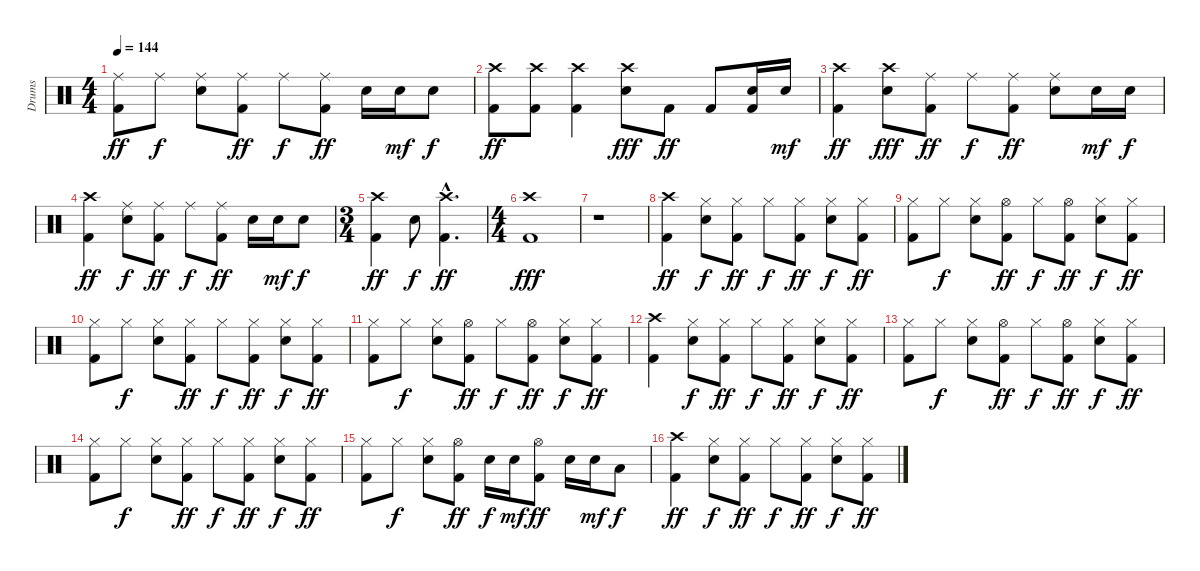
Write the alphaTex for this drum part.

\track ("Drums" "Drums") {instrument percussion}
\staff {score}
\articulation defaults
\ts (4 4)
\tempo 144
\clef neutral
\ks c
("Ride (middle)" "Kick (hit) 2").8{dy ff} "Ride (middle)".8{dy f} ("Ride (middle)" "Snare (hit) 2").8 ("Ride (middle)" "Kick (hit) 2").8{dy ff} "Ride (middle)".8{dy f} ("Ride (middle)" "Kick (hit) 2").8{dy ff} "Snare (hit) 2".16 "Snare (hit) 2".16{dy mf} "Snare (hit) 2".8{dy f} |
("Crash high (hit)" "Kick (hit) 2").8{dy ff} ("Crash high (hit)" "Kick (hit) 2").8 ("Crash high (hit)" "Kick (hit) 2").4 ("Crash high (hit)" "Snare (hit) 2").8{dy fff} "Kick (hit) 2".8{dy ff} "Kick (hit) 2".8 ("Snare (hit) 2" "Kick (hit) 2").16 "Snare (hit) 2".16{dy mf} |
("Crash high (hit)" "Kick (hit) 2").4{dy ff} ("Crash high (hit)" "Snare (hit) 2").8{dy fff} ("Ride (middle)" "Kick (hit) 2").8{dy ff} "Ride (middle)".8{dy f} ("Ride (middle)" "Kick (hit) 2").8{dy ff} ("Ride (middle)" "Snare (hit) 2").8 "Snare (hit) 2".16{dy mf} "Snare (hit) 2".16{dy f} |
("Crash high (hit)" "Kick (hit) 2").4{dy ff} ("Ride (middle)" "Snare (hit) 2").8{dy f} ("Ride (middle)" "Kick (hit) 2").8{dy ff} "Ride (middle)".8{dy f} ("Ride (middle)" "Kick (hit) 2").8{dy ff} "Snare (hit) 2".16 "Snare (hit) 2".16{dy mf} "Snare (hit) 2".8{dy f} |
\ts (3 4)
("Crash high (hit)" "Kick (hit) 2").4{dy ff} "Snare (hit) 2".8{dy f} ("Crash high (hit)"{hac} "Kick (hit) 2"{hac}).4{d dy ff} |
\ts (4 4)
("Crash high (hit)" "Kick (hit) 2").1{dy fff} |
r.1 |
("Crash high (hit)" "Kick (hit) 2").4{dy ff} ("Hi-Hat (closed)" "Snare (hit) 2").8{dy f} ("Hi-Hat (closed)" "Kick (hit) 2").8{dy ff} "Hi-Hat (closed)".8{dy f} ("Hi-Hat (closed)" "Kick (hit) 2").8{dy ff} ("Hi-Hat (closed)" "Snare (hit) 2").8{dy f} ("Hi-Hat (closed)" "Kick (hit) 2").8{dy ff} |
("Hi-Hat (closed)" "Kick (hit) 2").8 "Hi-Hat (closed)".8{dy f} ("Hi-Hat (closed)" "Snare (hit) 2").8 ("Hi-Hat (open)" "Kick (hit) 2").8{dy ff} "Hi-Hat (closed)".8{dy f} ("Hi-Hat (open)" "Kick (hit) 2").8{dy ff} ("Hi-Hat (closed)" "Snare (hit) 2").8{dy f} ("Hi-Hat (closed)" "Kick (hit) 2").8{dy ff} |
("Hi-Hat (closed)" "Kick (hit) 2").8 "Hi-Hat (closed)".8{dy f} ("Hi-Hat (closed)" "Snare (hit) 2").8 ("Hi-Hat (closed)" "Kick (hit) 2").8{dy ff} "Hi-Hat (closed)".8{dy f} ("Hi-Hat (closed)" "Kick (hit) 2").8{dy ff} ("Hi-Hat (closed)" "Snare (hit) 2").8{dy f} ("Hi-Hat (closed)" "Kick (hit) 2").8{dy ff} |
("Hi-Hat (closed)" "Kick (hit) 2").8 "Hi-Hat (closed)".8{dy f} ("Hi-Hat (closed)" "Snare (hit) 2").8 ("Hi-Hat (open)" "Kick (hit) 2").8{dy ff} "Hi-Hat (closed)".8{dy f} ("Hi-Hat (open)" "Kick (hit) 2").8{dy ff} ("Hi-Hat (closed)" "Snare (hit) 2").8{dy f} ("Hi-Hat (closed)" "Kick (hit) 2").8{dy ff} |
("Crash high (hit)" "Kick (hit) 2").4 ("Hi-Hat (closed)" "Snare (hit) 2").8{dy f} ("Hi-Hat (closed)" "Kick (hit) 2").8{dy ff} "Hi-Hat (closed)".8{dy f} ("Hi-Hat (closed)" "Kick (hit) 2").8{dy ff} ("Hi-Hat (closed)" "Snare (hit) 2").8{dy f} ("Hi-Hat (closed)" "Kick (hit) 2").8{dy ff} |
("Hi-Hat (closed)" "Kick (hit) 2").8 "Hi-Hat (closed)".8{dy f} ("Hi-Hat (closed)" "Snare (hit) 2").8 ("Hi-Hat (open)" "Kick (hit) 2").8{dy ff} "Hi-Hat (closed)".8{dy f} ("Hi-Hat (open)" "Kick (hit) 2").8{dy ff} ("Hi-Hat (closed)" "Snare (hit) 2").8{dy f} ("Hi-Hat (closed)" "Kick (hit) 2").8{dy ff} |
("Hi-Hat (closed)" "Kick (hit) 2").8 "Hi-Hat (closed)".8{dy f} ("Hi-Hat (closed)" "Snare (hit) 2").8 ("Hi-Hat (closed)" "Kick (hit) 2").8{dy ff} "Hi-Hat (closed)".8{dy f} ("Hi-Hat (closed)" "Kick (hit) 2").8{dy ff} ("Hi-Hat (closed)" "Snare (hit) 2").8{dy f} ("Hi-Hat (closed)" "Kick (hit) 2").8{dy ff} |
("Hi-Hat (closed)" "Kick (hit) 2").8 "Hi-Hat (closed)".8{dy f} ("Hi-Hat (closed)" "Snare (hit) 2").8 ("Hi-Hat (open)" "Kick (hit) 2").8{dy ff} "Snare (hit) 2".16{dy f} "Snare (hit) 2".16{dy mf} ("Hi-Hat (open)" "Kick (hit) 2").8{dy ff} "Snare (hit) 2".16 "Snare (hit) 2".16{dy mf} "Low Tom (hit)".8{dy f} |
("Crash high (hit)" "Kick (hit) 2").4{dy ff} ("Hi-Hat (closed)" "Snare (hit) 2").8{dy f} ("Hi-Hat (closed)" "Kick (hit) 2").8{dy ff} "Hi-Hat (closed)".8{dy f} ("Hi-Hat (closed)" "Kick (hit) 2").8{dy ff} ("Hi-Hat (closed)" "Snare (hit) 2").8{dy f} ("Hi-Hat (closed)" "Kick (hit) 2").8{dy ff}
